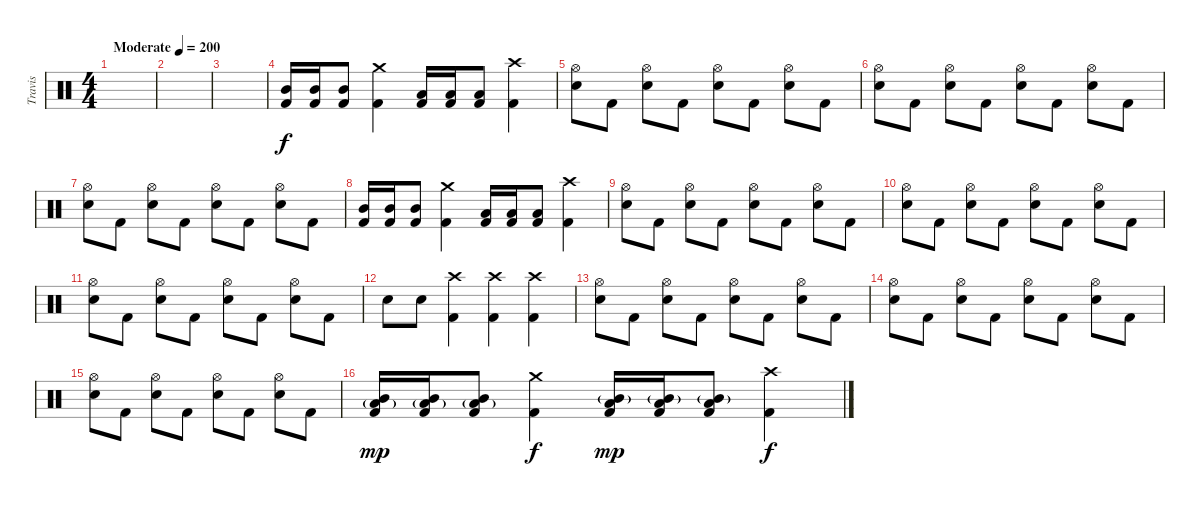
\track ("Travis" "Travis") {instrument percussion}
\staff {score}
\articulation defaults
\ts (4 4)
\tempo (200 "Moderate")
\clef neutral
\ks c
|
|
|
("Mid Tom (hit)" "Kick (hit) 2").16 ("Mid Tom (hit)" "Kick (hit) 2").16 ("Mid Tom (hit)" "Kick (hit) 2").8 ("Kick (hit) 2" "Crash medium (hit)").4 ("Low Tom (hit)" "Kick (hit) 2").16 ("Low Tom (hit)" "Kick (hit) 2").16 ("Low Tom (hit)" "Kick (hit) 2").8 ("Crash high (hit)" "Kick (hit) 2").4 |
("Electric Snare (hit)" "Hi-Hat (open)").8 "Kick (hit) 2".8 ("Electric Snare (hit)" "Hi-Hat (open)").8 "Kick (hit) 2".8 ("Electric Snare (hit)" "Hi-Hat (open)").8 "Kick (hit) 2".8 ("Electric Snare (hit)" "Hi-Hat (open)").8 "Kick (hit) 2".8 |
("Electric Snare (hit)" "Hi-Hat (open)").8 "Kick (hit) 2".8 ("Electric Snare (hit)" "Hi-Hat (open)").8 "Kick (hit) 2".8 ("Electric Snare (hit)" "Hi-Hat (open)").8 "Kick (hit) 2".8 ("Electric Snare (hit)" "Hi-Hat (open)").8 "Kick (hit) 2".8 |
("Electric Snare (hit)" "Hi-Hat (open)").8 "Kick (hit) 2".8 ("Electric Snare (hit)" "Hi-Hat (open)").8 "Kick (hit) 2".8 ("Electric Snare (hit)" "Hi-Hat (open)").8 "Kick (hit) 2".8 ("Electric Snare (hit)" "Hi-Hat (open)").8 "Kick (hit) 2".8 |
("Mid Tom (hit)" "Kick (hit) 2").16 ("Mid Tom (hit)" "Kick (hit) 2").16 ("Mid Tom (hit)" "Kick (hit) 2").8 ("Kick (hit) 2" "Crash medium (hit)").4 ("Low Tom (hit)" "Kick (hit) 2").16 ("Low Tom (hit)" "Kick (hit) 2").16 ("Low Tom (hit)" "Kick (hit) 2").8 ("Crash high (hit)" "Kick (hit) 2").4 |
("Electric Snare (hit)" "Hi-Hat (open)").8 "Kick (hit) 2".8 ("Electric Snare (hit)" "Hi-Hat (open)").8 "Kick (hit) 2".8 ("Electric Snare (hit)" "Hi-Hat (open)").8 "Kick (hit) 2".8 ("Electric Snare (hit)" "Hi-Hat (open)").8 "Kick (hit) 2".8 |
("Electric Snare (hit)" "Hi-Hat (open)").8 "Kick (hit) 2".8 ("Electric Snare (hit)" "Hi-Hat (open)").8 "Kick (hit) 2".8 ("Electric Snare (hit)" "Hi-Hat (open)").8 "Kick (hit) 2".8 ("Electric Snare (hit)" "Hi-Hat (open)").8 "Kick (hit) 2".8 |
("Electric Snare (hit)" "Hi-Hat (open)").8 "Kick (hit) 2".8 ("Electric Snare (hit)" "Hi-Hat (open)").8 "Kick (hit) 2".8 ("Electric Snare (hit)" "Hi-Hat (open)").8 "Kick (hit) 2".8 ("Electric Snare (hit)" "Hi-Hat (open)").8 "Kick (hit) 2".8 |
"Electric Snare (hit)".8 "Electric Snare (hit)".8 ("Kick (hit) 2" "Crash high (hit)").4 ("Kick (hit) 2" "Crash high (hit)").4 ("Kick (hit) 2" "Crash high (hit)").4 |
("Electric Snare (hit)" "Hi-Hat (open)").8 "Kick (hit) 2".8 ("Electric Snare (hit)" "Hi-Hat (open)").8 "Kick (hit) 2".8 ("Electric Snare (hit)" "Hi-Hat (open)").8 "Kick (hit) 2".8 ("Electric Snare (hit)" "Hi-Hat (open)").8 "Kick (hit) 2".8 |
("Electric Snare (hit)" "Hi-Hat (open)").8 "Kick (hit) 2".8 ("Electric Snare (hit)" "Hi-Hat (open)").8 "Kick (hit) 2".8 ("Electric Snare (hit)" "Hi-Hat (open)").8 "Kick (hit) 2".8 ("Electric Snare (hit)" "Hi-Hat (open)").8 "Kick (hit) 2".8 |
("Electric Snare (hit)" "Hi-Hat (open)").8 "Kick (hit) 2".8 ("Electric Snare (hit)" "Hi-Hat (open)").8 "Kick (hit) 2".8 ("Electric Snare (hit)" "Hi-Hat (open)").8 "Kick (hit) 2".8 ("Electric Snare (hit)" "Hi-Hat (open)").8 "Kick (hit) 2".8 |
("Low Tom (hit)"{g} "Mid Tom (hit)" "Kick (hit) 2").16{dy mp} ("Low Tom (hit)"{g} "Mid Tom (hit)" "Kick (hit) 2").16 ("Low Tom (hit)"{g} "Mid Tom (hit)" "Kick (hit) 2").8 ("Kick (hit) 2" "Crash medium (hit)").4{dy f} ("Mid Tom (hit)"{g} "Low Tom (hit)" "Kick (hit) 2").16{dy mp} ("Mid Tom (hit)"{g} "Low Tom (hit)" "Kick (hit) 2").16 ("Mid Tom (hit)"{g} "Low Tom (hit)" "Kick (hit) 2").8 ("Crash high (hit)" "Kick (hit) 2").4{dy f}
